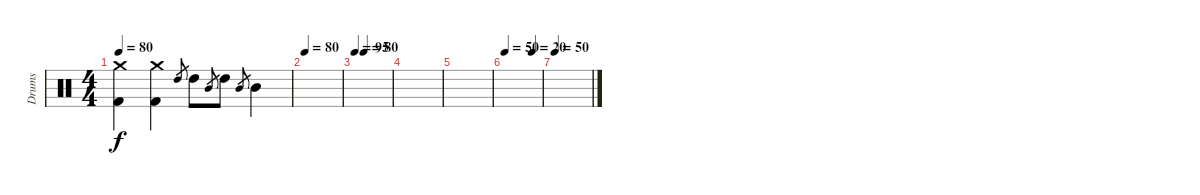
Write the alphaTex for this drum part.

\track ("Drums" "Drums") {instrument percussion}
\staff {score}
\articulation defaults
\ts (4 4)
\tempo 80
\clef neutral
\ks c
("Crash medium (hit)" "Kick (hit) 2").4{dy f} ("Crash medium (hit)" "Kick (hit) 2").4 "High Tom (hit)".8{gr} "High Tom (hit)".8 "Mid Tom (hit)".8{gr} "High Tom (hit)".8 "Mid Tom (hit)".8{gr} "Mid Tom (hit)".4 |
\tempo 80
|
\tempo 95
\tempo (80 0.25)
|
|
|
\tempo 50
\tempo (20 0.75)
|
\tempo 50
